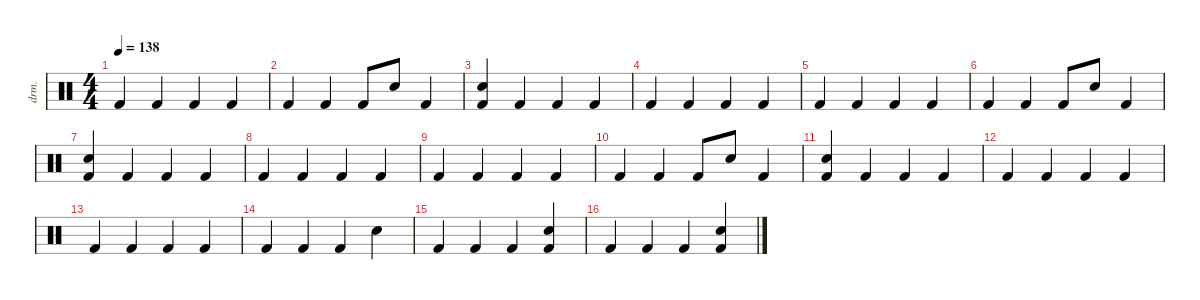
\defaultSystemsLayout 4
\hideDynamics
\bracketExtendMode nobrackets
\otherSystemsTrackNameOrientation horizontal
\track ("Drumkit" "drm.") {instrument percussion bank 128}
\staff {score}
\articulation defaults
\ts (4 4)
\tempo 138
\clef neutral
\ks c "Kick (hit) 2".4{dy mf beam Up} "Kick (hit) 2".4{beam Up} "Kick (hit) 2".4{beam Up} "Kick (hit) 2".4{beam Up}
|
"Kick (hit) 2".4{beam Up} "Kick (hit) 2".4{beam Up} "Kick (hit) 2".8{beam Up} "Snare (hit) 2".8{beam Up} "Kick (hit) 2".4{beam Up} |
("Kick (hit) 2" "Snare (hit) 2").4{beam Up} "Kick (hit) 2".4{beam Up} "Kick (hit) 2".4{beam Up} "Kick (hit) 2".4{beam Up} |
"Kick (hit) 2".4{beam Up} "Kick (hit) 2".4{beam Up} "Kick (hit) 2".4{beam Up} "Kick (hit) 2".4{beam Up} |
"Kick (hit) 2".4{beam Up} "Kick (hit) 2".4{beam Up} "Kick (hit) 2".4{beam Up} "Kick (hit) 2".4{beam Up} |
"Kick (hit) 2".4{beam Up} "Kick (hit) 2".4{beam Up} "Kick (hit) 2".8{beam Up} "Snare (hit) 2".8{beam Up} "Kick (hit) 2".4{beam Up} |
("Kick (hit) 2" "Snare (hit) 2").4{beam Up} "Kick (hit) 2".4{beam Up} "Kick (hit) 2".4{beam Up} "Kick (hit) 2".4{beam Up} |
"Kick (hit) 2".4{beam Up} "Kick (hit) 2".4{beam Up} "Kick (hit) 2".4{beam Up} "Kick (hit) 2".4{beam Up} |
"Kick (hit) 2".4{beam Up} "Kick (hit) 2".4{beam Up} "Kick (hit) 2".4{beam Up} "Kick (hit) 2".4{beam Up} |
"Kick (hit) 2".4{beam Up} "Kick (hit) 2".4{beam Up} "Kick (hit) 2".8{beam Up} "Snare (hit) 2".8{beam Up} "Kick (hit) 2".4{beam Up} |
("Kick (hit) 2" "Snare (hit) 2").4{beam Up} "Kick (hit) 2".4{beam Up} "Kick (hit) 2".4{beam Up} "Kick (hit) 2".4{beam Up} |
"Kick (hit) 2".4{beam Up} "Kick (hit) 2".4{beam Up} "Kick (hit) 2".4{beam Up} "Kick (hit) 2".4{beam Up} |
"Kick (hit) 2".4{beam Up} "Kick (hit) 2".4{beam Up} "Kick (hit) 2".4{beam Up} "Kick (hit) 2".4{beam Up} |
"Kick (hit) 2".4{beam Up} "Kick (hit) 2".4{beam Up} "Kick (hit) 2".4{beam Up} "Snare (hit) 2".4{beam Down} |
"Kick (hit) 2".4{beam Up} "Kick (hit) 2".4{beam Up} "Kick (hit) 2".4{beam Up} ("Kick (hit) 2" "Snare (hit) 2").4{beam Up} |
"Kick (hit) 2".4{beam Up} "Kick (hit) 2".4{beam Up} "Kick (hit) 2".4{beam Up} ("Kick (hit) 2" "Snare (hit) 2").4{beam Up}
